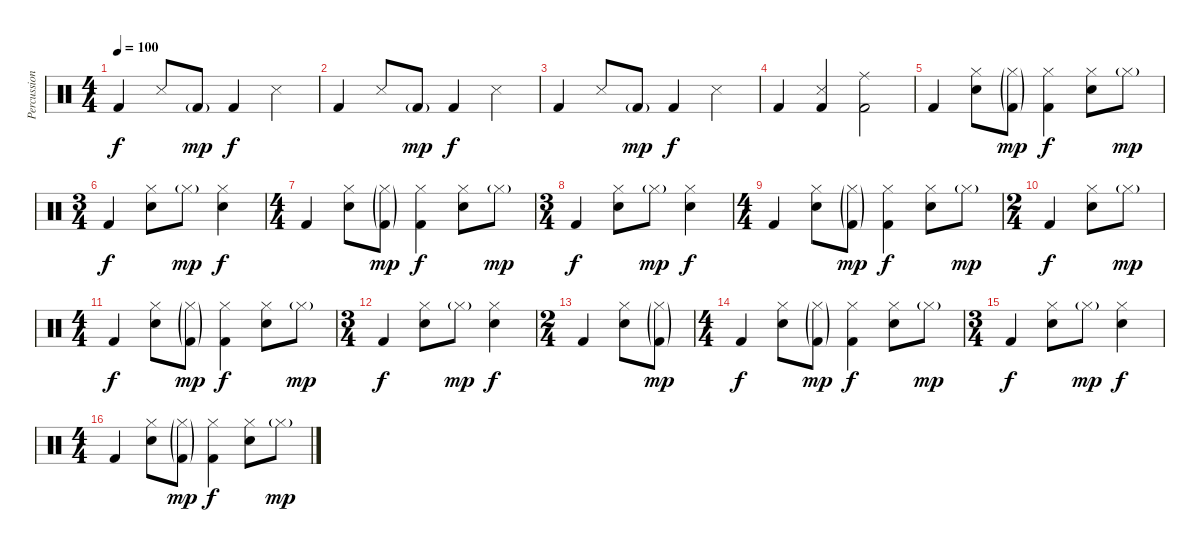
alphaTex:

\track ("Percussion" "Percussion") {instrument percussion}
\staff {score}
\articulation defaults
\ts (4 4)
\tempo 100
\clef neutral
\ks c "Kick (hit) 2".4{dy f} "Snare (side stick) 3".8 "Kick (hit) 2"{g}.8{dy mp} "Kick (hit) 2".4{dy f} "Snare (side stick) 3".4
|
"Kick (hit) 2".4 "Snare (side stick) 3".8 "Kick (hit) 2"{g}.8{dy mp} "Kick (hit) 2".4{dy f} "Snare (side stick) 3".4 |
"Kick (hit) 2".4 "Snare (side stick) 3".8 "Kick (hit) 2"{g}.8{dy mp} "Kick (hit) 2".4{dy f} "Snare (side stick) 3".4 |
"Kick (hit) 2".4 ("Snare (side stick) 3" "Kick (hit) 2").4 ("Ride (middle)" "Kick (hit) 2").2 |
"Kick (hit) 2".4 ("Hi-Hat (closed)" "Snare (hit) 2").8 ("Hi-Hat (closed)"{g} "Kick (hit) 2"{g}).8{dy mp} ("Hi-Hat (closed)" "Kick (hit) 2").4{dy f} ("Hi-Hat (closed)" "Snare (hit) 2").8 "Hi-Hat (closed)"{g}.8{dy mp} |
\ts (3 4)
"Kick (hit) 2".4{dy f} ("Hi-Hat (closed)" "Snare (hit) 2").8 "Hi-Hat (closed)"{g}.8{dy mp} ("Hi-Hat (closed)" "Snare (hit) 2").4{dy f} |
\ts (4 4)
"Kick (hit) 2".4 ("Hi-Hat (closed)" "Snare (hit) 2").8 ("Hi-Hat (closed)"{g} "Kick (hit) 2"{g}).8{dy mp} ("Hi-Hat (closed)" "Kick (hit) 2").4{dy f} ("Hi-Hat (closed)" "Snare (hit) 2").8 "Hi-Hat (closed)"{g}.8{dy mp} |
\ts (3 4)
"Kick (hit) 2".4{dy f} ("Hi-Hat (closed)" "Snare (hit) 2").8 "Hi-Hat (closed)"{g}.8{dy mp} ("Hi-Hat (closed)" "Snare (hit) 2").4{dy f} |
\ts (4 4)
"Kick (hit) 2".4 ("Hi-Hat (closed)" "Snare (hit) 2").8 ("Hi-Hat (closed)"{g} "Kick (hit) 2"{g}).8{dy mp} ("Hi-Hat (closed)" "Kick (hit) 2").4{dy f} ("Hi-Hat (closed)" "Snare (hit) 2").8 "Hi-Hat (closed)"{g}.8{dy mp} |
\ts (2 4)
"Kick (hit) 2".4{dy f} ("Hi-Hat (closed)" "Snare (hit) 2").8 "Hi-Hat (closed)"{g}.8{dy mp} |
\ts (4 4)
"Kick (hit) 2".4{dy f} ("Hi-Hat (closed)" "Snare (hit) 2").8 ("Hi-Hat (closed)"{g} "Kick (hit) 2"{g}).8{dy mp} ("Hi-Hat (closed)" "Kick (hit) 2").4{dy f} ("Hi-Hat (closed)" "Snare (hit) 2").8 "Hi-Hat (closed)"{g}.8{dy mp} |
\ts (3 4)
"Kick (hit) 2".4{dy f} ("Hi-Hat (closed)" "Snare (hit) 2").8 "Hi-Hat (closed)"{g}.8{dy mp} ("Hi-Hat (closed)" "Snare (hit) 2").4{dy f} |
\ts (2 4)
"Kick (hit) 2".4 ("Hi-Hat (closed)" "Snare (hit) 2").8 ("Hi-Hat (closed)"{g} "Kick (hit) 2"{g}).8{dy mp} |
\ts (4 4)
"Kick (hit) 2".4{dy f} ("Hi-Hat (closed)" "Snare (hit) 2").8 ("Hi-Hat (closed)"{g} "Kick (hit) 2"{g}).8{dy mp} ("Hi-Hat (closed)" "Kick (hit) 2").4{dy f} ("Hi-Hat (closed)" "Snare (hit) 2").8 "Hi-Hat (closed)"{g}.8{dy mp} |
\ts (3 4)
"Kick (hit) 2".4{dy f} ("Hi-Hat (closed)" "Snare (hit) 2").8 "Hi-Hat (closed)"{g}.8{dy mp} ("Hi-Hat (closed)" "Snare (hit) 2").4{dy f} |
\ts (4 4)
"Kick (hit) 2".4 ("Hi-Hat (closed)" "Snare (hit) 2").8 ("Hi-Hat (closed)"{g} "Kick (hit) 2"{g}).8{dy mp} ("Hi-Hat (closed)" "Kick (hit) 2").4{dy f} ("Hi-Hat (closed)" "Snare (hit) 2").8 "Hi-Hat (closed)"{g}.8{dy mp}
